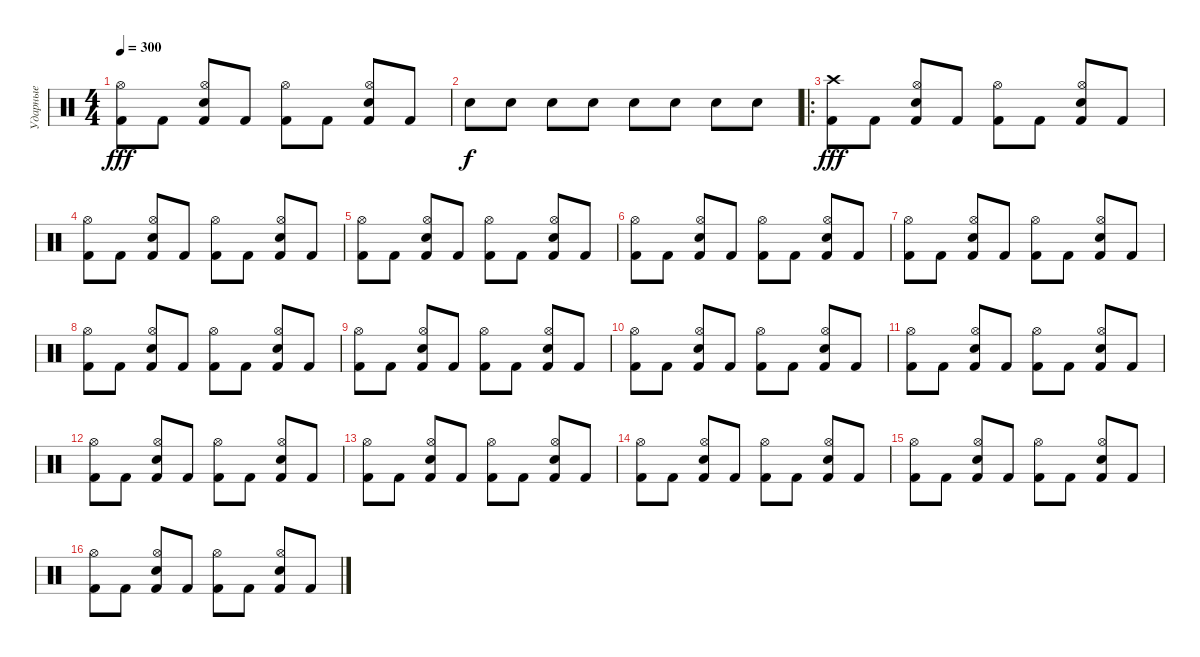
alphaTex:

\track ("Ударные" "Ударные") {instrument percussion}
\staff {score}
\articulation defaults
\ts (4 4)
\tempo 300
\clef neutral
\ks c
("Kick (hit) 2" "Hi-Hat (open)").8{dy fff} "Kick (hit) 2".8 ("Kick (hit) 2" "Snare (hit) 2" "Hi-Hat (open)").8 "Kick (hit) 2".8 ("Kick (hit) 2" "Hi-Hat (open)").8 "Kick (hit) 2".8 ("Kick (hit) 2" "Snare (hit) 2" "Hi-Hat (open)").8 "Kick (hit) 2".8 |
"Snare (hit) 2".8{dy f} "Snare (hit) 2".8 "Snare (hit) 2".8 "Snare (hit) 2".8 "Snare (hit) 2".8 "Snare (hit) 2".8 "Snare (hit) 2".8 "Snare (hit) 2".8 |
\ro
("Kick (hit) 2" "Crash high (hit)").8{dy fff} "Kick (hit) 2".8 ("Kick (hit) 2" "Snare (hit) 2" "Hi-Hat (open)").8 "Kick (hit) 2".8 ("Kick (hit) 2" "Hi-Hat (open)").8 "Kick (hit) 2".8 ("Kick (hit) 2" "Snare (hit) 2" "Hi-Hat (open)").8 "Kick (hit) 2".8 |
("Kick (hit) 2" "Hi-Hat (open)").8 "Kick (hit) 2".8 ("Kick (hit) 2" "Snare (hit) 2" "Hi-Hat (open)").8 "Kick (hit) 2".8 ("Kick (hit) 2" "Hi-Hat (open)").8 "Kick (hit) 2".8 ("Kick (hit) 2" "Snare (hit) 2" "Hi-Hat (open)").8 "Kick (hit) 2".8 |
("Kick (hit) 2" "Hi-Hat (open)").8 "Kick (hit) 2".8 ("Kick (hit) 2" "Snare (hit) 2" "Hi-Hat (open)").8 "Kick (hit) 2".8 ("Kick (hit) 2" "Hi-Hat (open)").8 "Kick (hit) 2".8 ("Kick (hit) 2" "Snare (hit) 2" "Hi-Hat (open)").8 "Kick (hit) 2".8 |
("Kick (hit) 2" "Hi-Hat (open)").8 "Kick (hit) 2".8 ("Kick (hit) 2" "Snare (hit) 2" "Hi-Hat (open)").8 "Kick (hit) 2".8 ("Kick (hit) 2" "Hi-Hat (open)").8 "Kick (hit) 2".8 ("Kick (hit) 2" "Snare (hit) 2" "Hi-Hat (open)").8 "Kick (hit) 2".8 |
("Kick (hit) 2" "Hi-Hat (open)").8 "Kick (hit) 2".8 ("Kick (hit) 2" "Snare (hit) 2" "Hi-Hat (open)").8 "Kick (hit) 2".8 ("Kick (hit) 2" "Hi-Hat (open)").8 "Kick (hit) 2".8 ("Kick (hit) 2" "Snare (hit) 2" "Hi-Hat (open)").8 "Kick (hit) 2".8 |
("Kick (hit) 2" "Hi-Hat (open)").8 "Kick (hit) 2".8 ("Kick (hit) 2" "Snare (hit) 2" "Hi-Hat (open)").8 "Kick (hit) 2".8 ("Kick (hit) 2" "Hi-Hat (open)").8 "Kick (hit) 2".8 ("Kick (hit) 2" "Snare (hit) 2" "Hi-Hat (open)").8 "Kick (hit) 2".8 |
("Kick (hit) 2" "Hi-Hat (open)").8 "Kick (hit) 2".8 ("Kick (hit) 2" "Snare (hit) 2" "Hi-Hat (open)").8 "Kick (hit) 2".8 ("Kick (hit) 2" "Hi-Hat (open)").8 "Kick (hit) 2".8 ("Kick (hit) 2" "Snare (hit) 2" "Hi-Hat (open)").8 "Kick (hit) 2".8 |
("Kick (hit) 2" "Hi-Hat (open)").8 "Kick (hit) 2".8 ("Kick (hit) 2" "Snare (hit) 2" "Hi-Hat (open)").8 "Kick (hit) 2".8 ("Kick (hit) 2" "Hi-Hat (open)").8 "Kick (hit) 2".8 ("Kick (hit) 2" "Snare (hit) 2" "Hi-Hat (open)").8 "Kick (hit) 2".8 |
("Kick (hit) 2" "Hi-Hat (open)").8 "Kick (hit) 2".8 ("Kick (hit) 2" "Snare (hit) 2" "Hi-Hat (open)").8 "Kick (hit) 2".8 ("Kick (hit) 2" "Hi-Hat (open)").8 "Kick (hit) 2".8 ("Kick (hit) 2" "Snare (hit) 2" "Hi-Hat (open)").8 "Kick (hit) 2".8 |
("Kick (hit) 2" "Hi-Hat (open)").8 "Kick (hit) 2".8 ("Kick (hit) 2" "Snare (hit) 2" "Hi-Hat (open)").8 "Kick (hit) 2".8 ("Kick (hit) 2" "Hi-Hat (open)").8 "Kick (hit) 2".8 ("Kick (hit) 2" "Snare (hit) 2" "Hi-Hat (open)").8 "Kick (hit) 2".8 |
("Kick (hit) 2" "Hi-Hat (open)").8 "Kick (hit) 2".8 ("Kick (hit) 2" "Snare (hit) 2" "Hi-Hat (open)").8 "Kick (hit) 2".8 ("Kick (hit) 2" "Hi-Hat (open)").8 "Kick (hit) 2".8 ("Kick (hit) 2" "Snare (hit) 2" "Hi-Hat (open)").8 "Kick (hit) 2".8 |
("Kick (hit) 2" "Hi-Hat (open)").8 "Kick (hit) 2".8 ("Kick (hit) 2" "Snare (hit) 2" "Hi-Hat (open)").8 "Kick (hit) 2".8 ("Kick (hit) 2" "Hi-Hat (open)").8 "Kick (hit) 2".8 ("Kick (hit) 2" "Snare (hit) 2" "Hi-Hat (open)").8 "Kick (hit) 2".8 |
("Kick (hit) 2" "Hi-Hat (open)").8 "Kick (hit) 2".8 ("Kick (hit) 2" "Snare (hit) 2" "Hi-Hat (open)").8 "Kick (hit) 2".8 ("Kick (hit) 2" "Hi-Hat (open)").8 "Kick (hit) 2".8 ("Kick (hit) 2" "Snare (hit) 2" "Hi-Hat (open)").8 "Kick (hit) 2".8 |
("Kick (hit) 2" "Hi-Hat (open)").8 "Kick (hit) 2".8 ("Kick (hit) 2" "Snare (hit) 2" "Hi-Hat (open)").8 "Kick (hit) 2".8 ("Kick (hit) 2" "Hi-Hat (open)").8 "Kick (hit) 2".8 ("Kick (hit) 2" "Snare (hit) 2" "Hi-Hat (open)").8 "Kick (hit) 2".8
